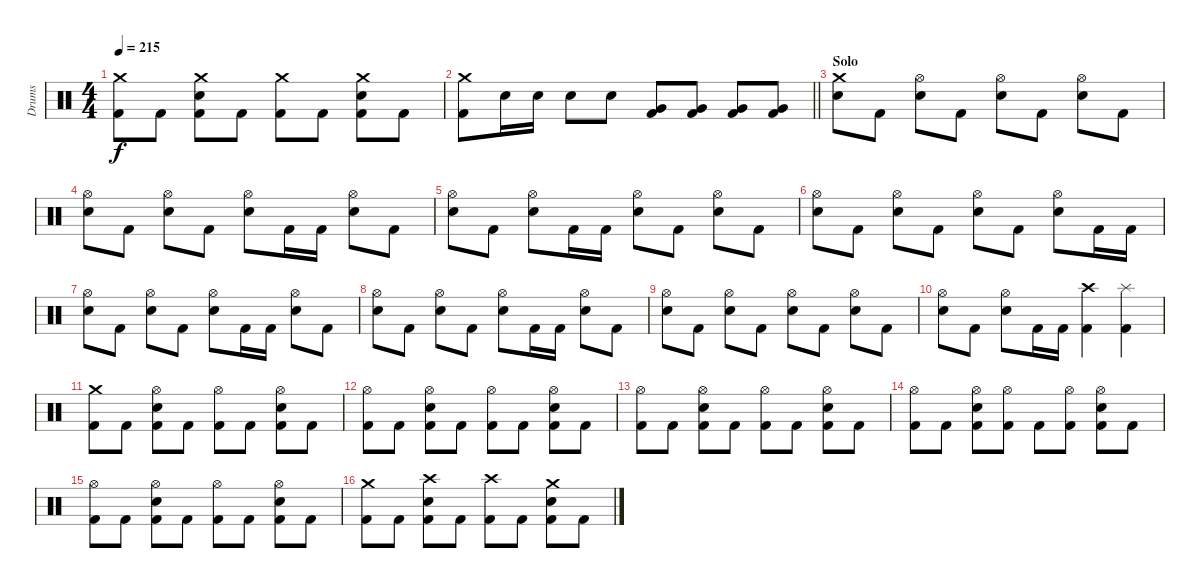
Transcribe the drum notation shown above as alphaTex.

\track ("Drums" "Drums") {instrument percussion}
\staff {score}
\articulation defaults
\ts (4 4)
\tempo 215
\clef neutral
\ks c
("Crash medium (hit)" "Kick (hit) 2").8{dy f} "Kick (hit) 2".8 ("Crash medium (hit)" "Electric Snare (hit)" "Kick (hit) 2").8 "Kick (hit) 2".8 ("Crash medium (hit)" "Kick (hit) 2").8 "Kick (hit) 2".8 ("Crash medium (hit)" "Electric Snare (hit)" "Kick (hit) 2").8 "Kick (hit) 2".8 |
\barLineRight lightlight
("Crash medium (hit)" "Kick (hit) 2").8 "Electric Snare (hit)".16 "Electric Snare (hit)".16 "Electric Snare (hit)".8 "Electric Snare (hit)".8 ("Very Low Tom (hit)" "Kick (hit) 2").8 ("Very Low Tom (hit)" "Kick (hit) 2").8 ("Very Low Tom (hit)" "Kick (hit) 2").8 ("Very Low Tom (hit)" "Kick (hit) 2").8 |
\section ("" "Solo")
("Crash medium (hit)" "Electric Snare (hit)").8 "Kick (hit) 2".8 ("Hi-Hat (open)" "Electric Snare (hit)").8 "Kick (hit) 2".8 ("Hi-Hat (open)" "Electric Snare (hit)").8 "Kick (hit) 2".8 ("Hi-Hat (open)" "Electric Snare (hit)").8 "Kick (hit) 2".8 |
("Hi-Hat (open)" "Electric Snare (hit)").8 "Kick (hit) 2".8 ("Hi-Hat (open)" "Electric Snare (hit)").8 "Kick (hit) 2".8 ("Hi-Hat (open)" "Electric Snare (hit)").8 "Kick (hit) 2".16 "Kick (hit) 2".16 ("Hi-Hat (open)" "Electric Snare (hit)").8 "Kick (hit) 2".8 |
("Hi-Hat (open)" "Electric Snare (hit)").8 "Kick (hit) 2".8 ("Hi-Hat (open)" "Electric Snare (hit)").8 "Kick (hit) 2".16 "Kick (hit) 2".16 ("Hi-Hat (open)" "Electric Snare (hit)").8 "Kick (hit) 2".8 ("Hi-Hat (open)" "Electric Snare (hit)").8 "Kick (hit) 2".8 |
("Hi-Hat (open)" "Electric Snare (hit)").8 "Kick (hit) 2".8 ("Hi-Hat (open)" "Electric Snare (hit)").8 "Kick (hit) 2".8 ("Hi-Hat (open)" "Electric Snare (hit)").8 "Kick (hit) 2".8 ("Hi-Hat (open)" "Electric Snare (hit)").8 "Kick (hit) 2".16 "Kick (hit) 2".16 |
("Hi-Hat (open)" "Electric Snare (hit)").8 "Kick (hit) 2".8 ("Hi-Hat (open)" "Electric Snare (hit)").8 "Kick (hit) 2".8 ("Hi-Hat (open)" "Electric Snare (hit)").8 "Kick (hit) 2".16 "Kick (hit) 2".16 ("Hi-Hat (open)" "Electric Snare (hit)").8 "Kick (hit) 2".8 |
("Hi-Hat (open)" "Electric Snare (hit)").8 "Kick (hit) 2".8 ("Hi-Hat (open)" "Electric Snare (hit)").8 "Kick (hit) 2".8 ("Hi-Hat (open)" "Electric Snare (hit)").8 "Kick (hit) 2".16 "Kick (hit) 2".16 ("Hi-Hat (open)" "Electric Snare (hit)").8 "Kick (hit) 2".8 |
("Hi-Hat (open)" "Electric Snare (hit)").8 "Kick (hit) 2".8 ("Hi-Hat (open)" "Electric Snare (hit)").8 "Kick (hit) 2".8 ("Hi-Hat (open)" "Electric Snare (hit)").8 "Kick (hit) 2".8 ("Hi-Hat (open)" "Electric Snare (hit)").8 "Kick (hit) 2".8 |
("Hi-Hat (open)" "Electric Snare (hit)").8 "Kick (hit) 2".8 ("Hi-Hat (open)" "Electric Snare (hit)").8 "Kick (hit) 2".16 "Kick (hit) 2".16 ("Crash high (hit)" "Kick (hit) 2").4 ("Splash (hit)" "Kick (hit) 2").4 |
("Crash medium (hit)" "Kick (hit) 2").8 "Kick (hit) 2".8 ("Hi-Hat (open)" "Electric Snare (hit)" "Kick (hit) 2").8 "Kick (hit) 2".8 ("Hi-Hat (open)" "Kick (hit) 2").8 "Kick (hit) 2".8 ("Hi-Hat (open)" "Electric Snare (hit)" "Kick (hit) 2").8 "Kick (hit) 2".8 |
("Hi-Hat (open)" "Kick (hit) 2").8 "Kick (hit) 2".8 ("Hi-Hat (open)" "Electric Snare (hit)" "Kick (hit) 2").8 "Kick (hit) 2".8 ("Hi-Hat (open)" "Kick (hit) 2").8 "Kick (hit) 2".8 ("Hi-Hat (open)" "Electric Snare (hit)" "Kick (hit) 2").8 "Kick (hit) 2".8 |
("Hi-Hat (open)" "Kick (hit) 2").8 "Kick (hit) 2".8 ("Hi-Hat (open)" "Electric Snare (hit)" "Kick (hit) 2").8 "Kick (hit) 2".8 ("Hi-Hat (open)" "Kick (hit) 2").8 "Kick (hit) 2".8 ("Hi-Hat (open)" "Electric Snare (hit)" "Kick (hit) 2").8 "Kick (hit) 2".8 |
("Hi-Hat (open)" "Kick (hit) 2").8 "Kick (hit) 2".8 ("Hi-Hat (open)" "Electric Snare (hit)" "Kick (hit) 2").8 ("Hi-Hat (open)" "Kick (hit) 2").8 "Kick (hit) 2".8 ("Hi-Hat (open)" "Kick (hit) 2").8 ("Hi-Hat (open)" "Electric Snare (hit)" "Kick (hit) 2").8 "Kick (hit) 2".8 |
("Hi-Hat (open)" "Kick (hit) 2").8 "Kick (hit) 2".8 ("Hi-Hat (open)" "Electric Snare (hit)" "Kick (hit) 2").8 "Kick (hit) 2".8 ("Hi-Hat (open)" "Kick (hit) 2").8 "Kick (hit) 2".8 ("Hi-Hat (open)" "Electric Snare (hit)" "Kick (hit) 2").8 "Kick (hit) 2".8 |
("Crash medium (hit)" "Kick (hit) 2").8 "Kick (hit) 2".8 ("Crash high (hit)" "Electric Snare (hit)" "Kick (hit) 2").8 "Kick (hit) 2".8 ("Crash high (hit)" "Kick (hit) 2").8 "Kick (hit) 2".8 ("Crash medium (hit)" "Electric Snare (hit)" "Kick (hit) 2").8 "Kick (hit) 2".8
